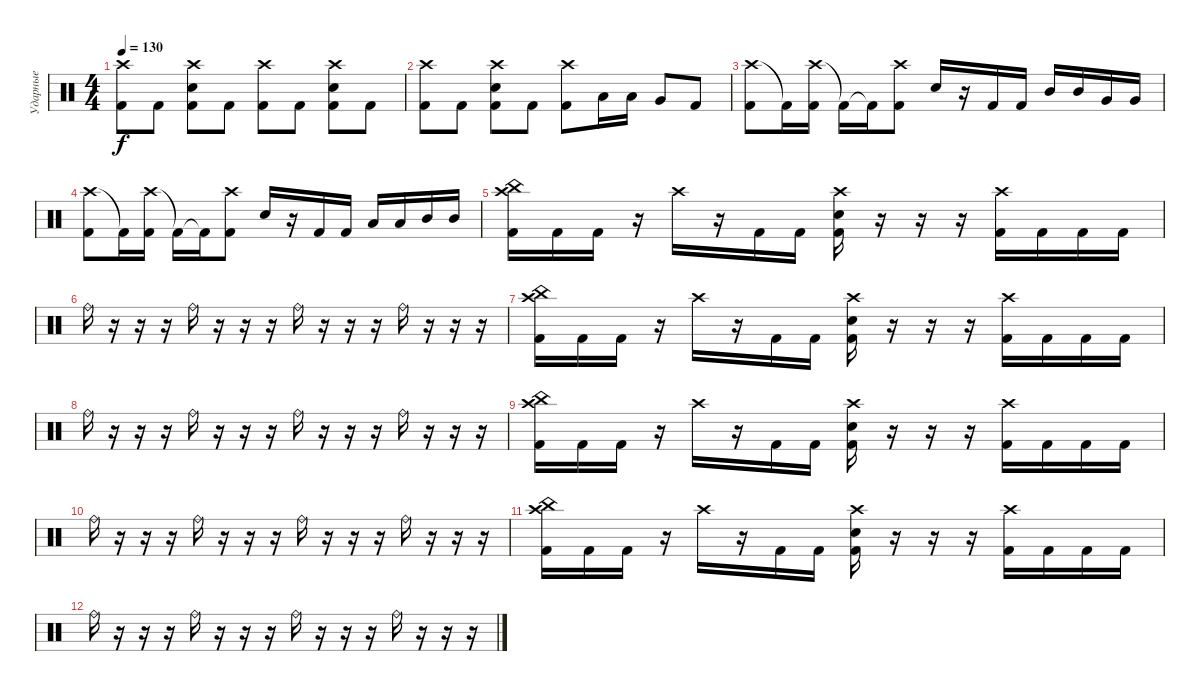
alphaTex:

\track ("Ударные" "Ударные") {instrument percussion}
\staff {score}
\articulation defaults
\ts (4 4)
\tempo 130
\clef neutral
\ks c
("Crash high (hit)" "Kick (hit) 2").8{dy f} "Kick (hit) 2".8 ("Crash high (hit)" "Snare (hit) 2" "Kick (hit) 2").8 "Kick (hit) 2".8 ("Crash high (hit)" "Kick (hit) 2").8 "Kick (hit) 2".8 ("Crash high (hit)" "Snare (hit) 2" "Kick (hit) 2").8 "Kick (hit) 2".8 |
("Crash high (hit)" "Kick (hit) 2").8 "Kick (hit) 2".8 ("Crash high (hit)" "Snare (hit) 2" "Kick (hit) 2").8 "Kick (hit) 2".8 ("Crash high (hit)" "Kick (hit) 2").8 "Low Tom (hit)".16 "Low Tom (hit)".16 "Very Low Tom (hit)".8 "Kick (hit) 2".8 |
("Crash high (hit)" "Kick (hit) 2").8 "Kick (hit) 2"{t}.16 ("Crash high (hit)" "Kick (hit) 2").16 "Kick (hit) 2"{t}.16 "Kick (hit) 2"{t}.16 ("Crash high (hit)" "Kick (hit) 2").8 "Snare (hit) 2".16 r.16 "Kick (hit) 2".16 "Kick (hit) 2".16 "Mid Tom (hit)".16 "Mid Tom (hit)".16 "Very Low Tom (hit)".16 "Very Low Tom (hit)".16 |
("Crash high (hit)" "Kick (hit) 2").8 "Kick (hit) 2"{t}.16 ("Crash high (hit)" "Kick (hit) 2").16 "Kick (hit) 2"{t}.16 "Kick (hit) 2"{t}.16 ("Crash high (hit)" "Kick (hit) 2").8 "Snare (hit) 2".16 r.16 "Kick (hit) 2".16 "Kick (hit) 2".16 "Low Tom (hit)".16 "Low Tom (hit)".16 "Mid Tom (hit)".16 "Mid Tom (hit)".16 |
("Crash high (hit)" "China (hit)" "Kick (hit) 2").16 "Kick (hit) 2".16 "Kick (hit) 2".16 r.16 "Crash high (hit)".16 r.16 "Kick (hit) 2".16 "Kick (hit) 2".16 ("Crash high (hit)" "Snare (hit) 2" "Kick (hit) 2").16 r.16 r.16 r.16 ("Crash high (hit)" "Kick (hit) 2").16 "Kick (hit) 2".16 "Kick (hit) 2".16 "Kick (hit) 2".16 |
"Ride (bell)".16 r.16 r.16 r.16 "Ride (bell)".16 r.16 r.16 r.16 "Ride (bell)".16 r.16 r.16 r.16 "Ride (bell)".16 r.16 r.16 r.16 |
("Crash high (hit)" "China (hit)" "Kick (hit) 2").16 "Kick (hit) 2".16 "Kick (hit) 2".16 r.16 "Crash high (hit)".16 r.16 "Kick (hit) 2".16 "Kick (hit) 2".16 ("Crash high (hit)" "Snare (hit) 2" "Kick (hit) 2").16 r.16 r.16 r.16 ("Crash high (hit)" "Kick (hit) 2").16 "Kick (hit) 2".16 "Kick (hit) 2".16 "Kick (hit) 2".16 |
"Ride (bell)".16 r.16 r.16 r.16 "Ride (bell)".16 r.16 r.16 r.16 "Ride (bell)".16 r.16 r.16 r.16 "Ride (bell)".16 r.16 r.16 r.16 |
("Crash high (hit)" "China (hit)" "Kick (hit) 2").16 "Kick (hit) 2".16 "Kick (hit) 2".16 r.16 "Crash high (hit)".16 r.16 "Kick (hit) 2".16 "Kick (hit) 2".16 ("Crash high (hit)" "Snare (hit) 2" "Kick (hit) 2").16 r.16 r.16 r.16 ("Crash high (hit)" "Kick (hit) 2").16 "Kick (hit) 2".16 "Kick (hit) 2".16 "Kick (hit) 2".16 |
"Ride (bell)".16 r.16 r.16 r.16 "Ride (bell)".16 r.16 r.16 r.16 "Ride (bell)".16 r.16 r.16 r.16 "Ride (bell)".16 r.16 r.16 r.16 |
("Crash high (hit)" "China (hit)" "Kick (hit) 2").16 "Kick (hit) 2".16 "Kick (hit) 2".16 r.16 "Crash high (hit)".16 r.16 "Kick (hit) 2".16 "Kick (hit) 2".16 ("Crash high (hit)" "Snare (hit) 2" "Kick (hit) 2").16 r.16 r.16 r.16 ("Crash high (hit)" "Kick (hit) 2").16 "Kick (hit) 2".16 "Kick (hit) 2".16 "Kick (hit) 2".16 |
"Ride (bell)".16 r.16 r.16 r.16 "Ride (bell)".16 r.16 r.16 r.16 "Ride (bell)".16 r.16 r.16 r.16 "Ride (bell)".16 r.16 r.16 r.16
